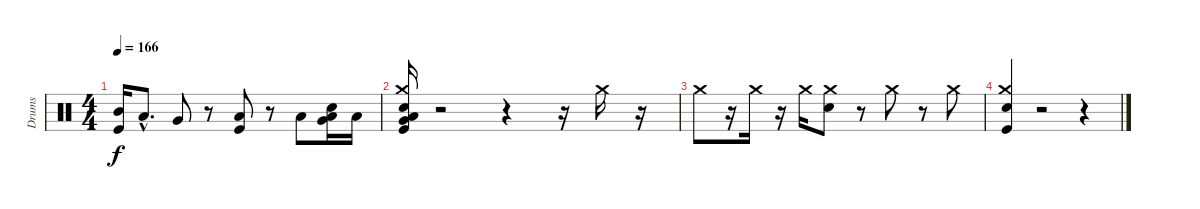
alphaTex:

\track ("Drums" "Drums") {instrument percussion}
\staff {score}
\articulation defaults
\ts (4 4)
\tempo 166
\clef neutral
\ks c
("Kick (hit)" "Mid Tom (hit)").16{dy f} "Low Tom (hit)"{hac}.8{d} "Very Low Tom (hit)".8 r.8 ("Kick (hit)" "Low Floor Tom (hit)").8 r.8 "Low Tom (hit)".8 ("Snare (hit)" "Low Tom (hit)" "Very Low Tom (hit)").16 "Low Floor Tom (hit)".16 |
("Crash medium (hit)" "Low Tom (hit)" "Electric Snare (hit)" "Very Low Tom (hit)" "Kick (hit)").16 r.2 r.4 r.16 "Crash medium (hit)".16 r.16 |
"Crash medium (hit)".8 r.16 "Crash medium (hit)".16 r.16 "Crash medium (hit)".16 ("Snare (hit)" "Crash medium (hit)").8 r.8 "Crash medium (hit)".8 r.8 "Crash medium (hit)".8 |
("Electric Snare (hit)" "Kick (hit)" "Crash medium (hit)").4 r.2 r.4
